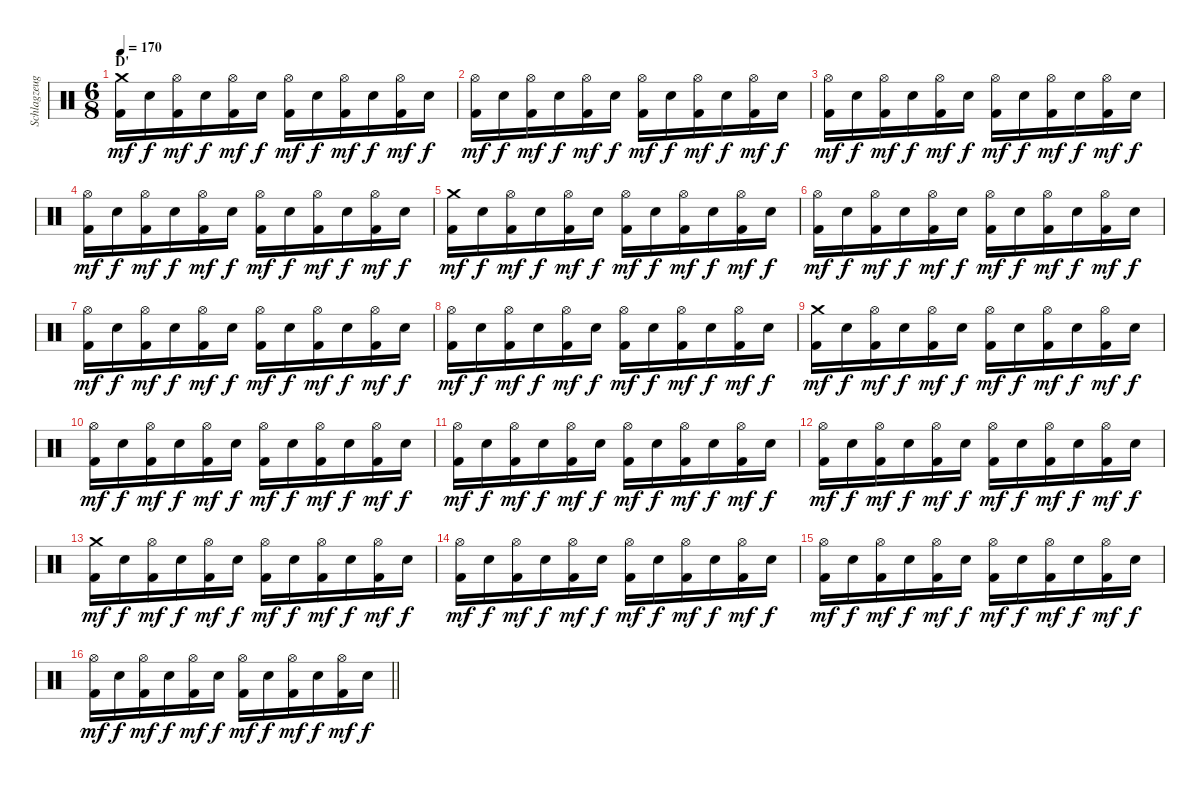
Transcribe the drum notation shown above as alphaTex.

\track ("Schlagzeug" "Schlagzeug") {instrument percussion}
\staff {score}
\articulation defaults
\ts (6 8)
\section ("" "D'")
\tempo 170
\clef neutral
\ks c
("Crash medium (hit)" "Kick (hit) 2").16{dy mf} "Electric Snare (hit)".16{dy f} ("Hi-Hat (open)" "Kick (hit) 2").16{dy mf} "Electric Snare (hit)".16{dy f} ("Hi-Hat (open)" "Kick (hit) 2").16{dy mf} "Electric Snare (hit)".16{dy f} ("Hi-Hat (open)" "Kick (hit) 2").16{dy mf} "Electric Snare (hit)".16{dy f} ("Hi-Hat (open)" "Kick (hit) 2").16{dy mf} "Electric Snare (hit)".16{dy f} ("Hi-Hat (open)" "Kick (hit) 2").16{dy mf} "Electric Snare (hit)".16{dy f} |
("Hi-Hat (open)" "Kick (hit) 2").16{dy mf} "Electric Snare (hit)".16{dy f} ("Hi-Hat (open)" "Kick (hit) 2").16{dy mf} "Electric Snare (hit)".16{dy f} ("Hi-Hat (open)" "Kick (hit) 2").16{dy mf} "Electric Snare (hit)".16{dy f} ("Hi-Hat (open)" "Kick (hit) 2").16{dy mf} "Electric Snare (hit)".16{dy f} ("Hi-Hat (open)" "Kick (hit) 2").16{dy mf} "Electric Snare (hit)".16{dy f} ("Hi-Hat (open)" "Kick (hit) 2").16{dy mf} "Electric Snare (hit)".16{dy f} |
("Hi-Hat (open)" "Kick (hit) 2").16{dy mf} "Electric Snare (hit)".16{dy f} ("Hi-Hat (open)" "Kick (hit) 2").16{dy mf} "Electric Snare (hit)".16{dy f} ("Hi-Hat (open)" "Kick (hit) 2").16{dy mf} "Electric Snare (hit)".16{dy f} ("Hi-Hat (open)" "Kick (hit) 2").16{dy mf} "Electric Snare (hit)".16{dy f} ("Hi-Hat (open)" "Kick (hit) 2").16{dy mf} "Electric Snare (hit)".16{dy f} ("Hi-Hat (open)" "Kick (hit) 2").16{dy mf} "Electric Snare (hit)".16{dy f} |
("Hi-Hat (open)" "Kick (hit) 2").16{dy mf} "Electric Snare (hit)".16{dy f} ("Hi-Hat (open)" "Kick (hit) 2").16{dy mf} "Electric Snare (hit)".16{dy f} ("Hi-Hat (open)" "Kick (hit) 2").16{dy mf} "Electric Snare (hit)".16{dy f} ("Hi-Hat (open)" "Kick (hit) 2").16{dy mf} "Electric Snare (hit)".16{dy f} ("Hi-Hat (open)" "Kick (hit) 2").16{dy mf} "Electric Snare (hit)".16{dy f} ("Hi-Hat (open)" "Kick (hit) 2").16{dy mf} "Electric Snare (hit)".16{dy f} |
("Crash medium (hit)" "Kick (hit) 2").16{dy mf} "Electric Snare (hit)".16{dy f} ("Hi-Hat (open)" "Kick (hit) 2").16{dy mf} "Electric Snare (hit)".16{dy f} ("Hi-Hat (open)" "Kick (hit) 2").16{dy mf} "Electric Snare (hit)".16{dy f} ("Hi-Hat (open)" "Kick (hit) 2").16{dy mf} "Electric Snare (hit)".16{dy f} ("Hi-Hat (open)" "Kick (hit) 2").16{dy mf} "Electric Snare (hit)".16{dy f} ("Hi-Hat (open)" "Kick (hit) 2").16{dy mf} "Electric Snare (hit)".16{dy f} |
("Hi-Hat (open)" "Kick (hit) 2").16{dy mf} "Electric Snare (hit)".16{dy f} ("Hi-Hat (open)" "Kick (hit) 2").16{dy mf} "Electric Snare (hit)".16{dy f} ("Hi-Hat (open)" "Kick (hit) 2").16{dy mf} "Electric Snare (hit)".16{dy f} ("Hi-Hat (open)" "Kick (hit) 2").16{dy mf} "Electric Snare (hit)".16{dy f} ("Hi-Hat (open)" "Kick (hit) 2").16{dy mf} "Electric Snare (hit)".16{dy f} ("Hi-Hat (open)" "Kick (hit) 2").16{dy mf} "Electric Snare (hit)".16{dy f} |
("Hi-Hat (open)" "Kick (hit) 2").16{dy mf} "Electric Snare (hit)".16{dy f} ("Hi-Hat (open)" "Kick (hit) 2").16{dy mf} "Electric Snare (hit)".16{dy f} ("Hi-Hat (open)" "Kick (hit) 2").16{dy mf} "Electric Snare (hit)".16{dy f} ("Hi-Hat (open)" "Kick (hit) 2").16{dy mf} "Electric Snare (hit)".16{dy f} ("Hi-Hat (open)" "Kick (hit) 2").16{dy mf} "Electric Snare (hit)".16{dy f} ("Hi-Hat (open)" "Kick (hit) 2").16{dy mf} "Electric Snare (hit)".16{dy f} |
("Hi-Hat (open)" "Kick (hit) 2").16{dy mf} "Electric Snare (hit)".16{dy f} ("Hi-Hat (open)" "Kick (hit) 2").16{dy mf} "Electric Snare (hit)".16{dy f} ("Hi-Hat (open)" "Kick (hit) 2").16{dy mf} "Electric Snare (hit)".16{dy f} ("Hi-Hat (open)" "Kick (hit) 2").16{dy mf} "Electric Snare (hit)".16{dy f} ("Hi-Hat (open)" "Kick (hit) 2").16{dy mf} "Electric Snare (hit)".16{dy f} ("Hi-Hat (open)" "Kick (hit) 2").16{dy mf} "Electric Snare (hit)".16{dy f} |
("Crash medium (hit)" "Kick (hit) 2").16{dy mf} "Electric Snare (hit)".16{dy f} ("Hi-Hat (open)" "Kick (hit) 2").16{dy mf} "Electric Snare (hit)".16{dy f} ("Hi-Hat (open)" "Kick (hit) 2").16{dy mf} "Electric Snare (hit)".16{dy f} ("Hi-Hat (open)" "Kick (hit) 2").16{dy mf} "Electric Snare (hit)".16{dy f} ("Hi-Hat (open)" "Kick (hit) 2").16{dy mf} "Electric Snare (hit)".16{dy f} ("Hi-Hat (open)" "Kick (hit) 2").16{dy mf} "Electric Snare (hit)".16{dy f} |
("Hi-Hat (open)" "Kick (hit) 2").16{dy mf} "Electric Snare (hit)".16{dy f} ("Hi-Hat (open)" "Kick (hit) 2").16{dy mf} "Electric Snare (hit)".16{dy f} ("Hi-Hat (open)" "Kick (hit) 2").16{dy mf} "Electric Snare (hit)".16{dy f} ("Hi-Hat (open)" "Kick (hit) 2").16{dy mf} "Electric Snare (hit)".16{dy f} ("Hi-Hat (open)" "Kick (hit) 2").16{dy mf} "Electric Snare (hit)".16{dy f} ("Hi-Hat (open)" "Kick (hit) 2").16{dy mf} "Electric Snare (hit)".16{dy f} |
("Hi-Hat (open)" "Kick (hit) 2").16{dy mf} "Electric Snare (hit)".16{dy f} ("Hi-Hat (open)" "Kick (hit) 2").16{dy mf} "Electric Snare (hit)".16{dy f} ("Hi-Hat (open)" "Kick (hit) 2").16{dy mf} "Electric Snare (hit)".16{dy f} ("Hi-Hat (open)" "Kick (hit) 2").16{dy mf} "Electric Snare (hit)".16{dy f} ("Hi-Hat (open)" "Kick (hit) 2").16{dy mf} "Electric Snare (hit)".16{dy f} ("Hi-Hat (open)" "Kick (hit) 2").16{dy mf} "Electric Snare (hit)".16{dy f} |
("Hi-Hat (open)" "Kick (hit) 2").16{dy mf} "Electric Snare (hit)".16{dy f} ("Hi-Hat (open)" "Kick (hit) 2").16{dy mf} "Electric Snare (hit)".16{dy f} ("Hi-Hat (open)" "Kick (hit) 2").16{dy mf} "Electric Snare (hit)".16{dy f} ("Hi-Hat (open)" "Kick (hit) 2").16{dy mf} "Electric Snare (hit)".16{dy f} ("Hi-Hat (open)" "Kick (hit) 2").16{dy mf} "Electric Snare (hit)".16{dy f} ("Hi-Hat (open)" "Kick (hit) 2").16{dy mf} "Electric Snare (hit)".16{dy f} |
("Crash medium (hit)" "Kick (hit) 2").16{dy mf} "Electric Snare (hit)".16{dy f} ("Hi-Hat (open)" "Kick (hit) 2").16{dy mf} "Electric Snare (hit)".16{dy f} ("Hi-Hat (open)" "Kick (hit) 2").16{dy mf} "Electric Snare (hit)".16{dy f} ("Hi-Hat (open)" "Kick (hit) 2").16{dy mf} "Electric Snare (hit)".16{dy f} ("Hi-Hat (open)" "Kick (hit) 2").16{dy mf} "Electric Snare (hit)".16{dy f} ("Hi-Hat (open)" "Kick (hit) 2").16{dy mf} "Electric Snare (hit)".16{dy f} |
("Hi-Hat (open)" "Kick (hit) 2").16{dy mf} "Electric Snare (hit)".16{dy f} ("Hi-Hat (open)" "Kick (hit) 2").16{dy mf} "Electric Snare (hit)".16{dy f} ("Hi-Hat (open)" "Kick (hit) 2").16{dy mf} "Electric Snare (hit)".16{dy f} ("Hi-Hat (open)" "Kick (hit) 2").16{dy mf} "Electric Snare (hit)".16{dy f} ("Hi-Hat (open)" "Kick (hit) 2").16{dy mf} "Electric Snare (hit)".16{dy f} ("Hi-Hat (open)" "Kick (hit) 2").16{dy mf} "Electric Snare (hit)".16{dy f} |
("Hi-Hat (open)" "Kick (hit) 2").16{dy mf} "Electric Snare (hit)".16{dy f} ("Hi-Hat (open)" "Kick (hit) 2").16{dy mf} "Electric Snare (hit)".16{dy f} ("Hi-Hat (open)" "Kick (hit) 2").16{dy mf} "Electric Snare (hit)".16{dy f} ("Hi-Hat (open)" "Kick (hit) 2").16{dy mf} "Electric Snare (hit)".16{dy f} ("Hi-Hat (open)" "Kick (hit) 2").16{dy mf} "Electric Snare (hit)".16{dy f} ("Hi-Hat (open)" "Kick (hit) 2").16{dy mf} "Electric Snare (hit)".16{dy f} |
\barLineRight lightlight
("Hi-Hat (open)" "Kick (hit) 2").16{dy mf} "Electric Snare (hit)".16{dy f} ("Hi-Hat (open)" "Kick (hit) 2").16{dy mf} "Electric Snare (hit)".16{dy f} ("Hi-Hat (open)" "Kick (hit) 2").16{dy mf} "Electric Snare (hit)".16{dy f} ("Hi-Hat (open)" "Kick (hit) 2").16{dy mf} "Electric Snare (hit)".16{dy f} ("Hi-Hat (open)" "Kick (hit) 2").16{dy mf} "Electric Snare (hit)".16{dy f} ("Hi-Hat (open)" "Kick (hit) 2").16{dy mf} "Electric Snare (hit)".16{dy f}
